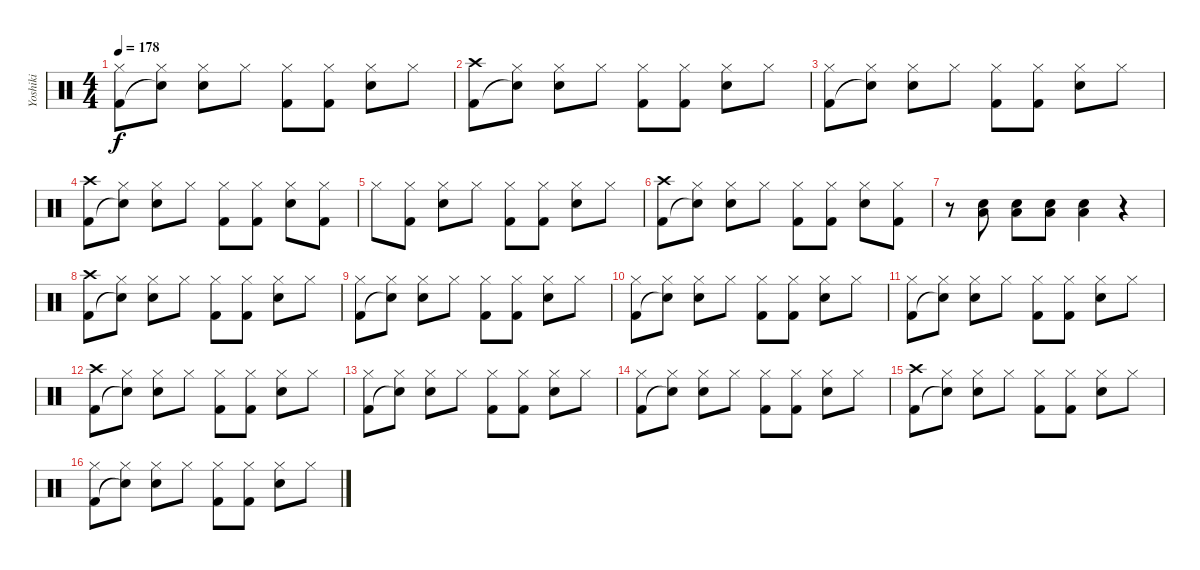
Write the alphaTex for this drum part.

\track ("Yoshiki" "Yoshiki") {instrument percussion}
\staff {score}
\articulation defaults
\ts (4 4)
\tempo 178
\clef neutral
\ks c
("Hi-Hat (closed)" "Kick (hit) 2").8{dy f} ("Hi-Hat (closed)" "Snare (hit)"{t}).8 ("Hi-Hat (closed)" "Snare (hit) 2").8 "Hi-Hat (closed)".8 ("Hi-Hat (closed)" "Kick (hit) 2").8 ("Hi-Hat (closed)" "Kick (hit) 2").8 ("Hi-Hat (closed)" "Snare (hit) 2").8 "Hi-Hat (closed)".8 |
("Crash high (hit)" "Kick (hit) 2").8 ("Hi-Hat (closed)" "Snare (hit)"{t}).8 ("Hi-Hat (closed)" "Snare (hit) 2").8 "Hi-Hat (closed)".8 ("Hi-Hat (closed)" "Kick (hit) 2").8 ("Hi-Hat (closed)" "Kick (hit) 2").8 ("Hi-Hat (closed)" "Snare (hit) 2").8 "Hi-Hat (closed)".8 |
("Hi-Hat (closed)" "Kick (hit) 2").8 ("Hi-Hat (closed)" "Snare (hit)"{t}).8 ("Hi-Hat (closed)" "Snare (hit) 2").8 "Hi-Hat (closed)".8 ("Hi-Hat (closed)" "Kick (hit) 2").8 ("Hi-Hat (closed)" "Kick (hit) 2").8 ("Hi-Hat (closed)" "Snare (hit) 2").8 "Hi-Hat (closed)".8 |
("Crash high (hit)" "Kick (hit) 2").8 ("Hi-Hat (closed)" "Snare (hit)"{t}).8 ("Hi-Hat (closed)" "Snare (hit) 2").8 "Hi-Hat (closed)".8 ("Hi-Hat (closed)" "Kick (hit) 2").8 ("Hi-Hat (closed)" "Kick (hit) 2").8 ("Hi-Hat (closed)" "Snare (hit) 2").8 ("Hi-Hat (closed)" "Kick (hit) 2").8 |
"Hi-Hat (closed)".8 ("Hi-Hat (closed)" "Kick (hit) 2").8 ("Hi-Hat (closed)" "Snare (hit) 2").8 "Hi-Hat (closed)".8 ("Hi-Hat (closed)" "Kick (hit) 2").8 ("Hi-Hat (closed)" "Kick (hit) 2").8 ("Hi-Hat (closed)" "Snare (hit) 2").8 "Hi-Hat (closed)".8 |
("Crash high (hit)" "Kick (hit) 2").8 ("Hi-Hat (closed)" "Snare (hit)"{t}).8 ("Hi-Hat (closed)" "Snare (hit) 2").8 "Hi-Hat (closed)".8 ("Hi-Hat (closed)" "Kick (hit) 2").8 ("Hi-Hat (closed)" "Kick (hit) 2").8 ("Hi-Hat (closed)" "Snare (hit) 2").8 ("Hi-Hat (closed)" "Kick (hit) 2").8 |
r.8 ("Snare (hit) 2" "Low Floor Tom (hit)").8 ("Snare (hit) 2" "Low Floor Tom (hit)").8 ("Snare (hit) 2" "Low Floor Tom (hit)").8 ("Snare (hit) 2" "Low Floor Tom (hit)").4 r.4 |
("Crash high (hit)" "Kick (hit) 2").8 ("Hi-Hat (closed)" "Snare (hit)"{t}).8 ("Hi-Hat (closed)" "Snare (hit) 2").8 "Hi-Hat (closed)".8 ("Hi-Hat (closed)" "Kick (hit) 2").8 ("Hi-Hat (closed)" "Kick (hit) 2").8 ("Hi-Hat (closed)" "Snare (hit) 2").8 "Hi-Hat (closed)".8 |
("Hi-Hat (closed)" "Kick (hit) 2").8 ("Hi-Hat (closed)" "Snare (hit)"{t}).8 ("Hi-Hat (closed)" "Snare (hit) 2").8 "Hi-Hat (closed)".8 ("Hi-Hat (closed)" "Kick (hit) 2").8 ("Hi-Hat (closed)" "Kick (hit) 2").8 ("Hi-Hat (closed)" "Snare (hit) 2").8 "Hi-Hat (closed)".8 |
("Hi-Hat (closed)" "Kick (hit) 2").8 ("Hi-Hat (closed)" "Snare (hit)"{t}).8 ("Hi-Hat (closed)" "Snare (hit) 2").8 "Hi-Hat (closed)".8 ("Hi-Hat (closed)" "Kick (hit) 2").8 ("Hi-Hat (closed)" "Kick (hit) 2").8 ("Hi-Hat (closed)" "Snare (hit) 2").8 "Hi-Hat (closed)".8 |
("Hi-Hat (closed)" "Kick (hit) 2").8 ("Hi-Hat (closed)" "Snare (hit)"{t}).8 ("Hi-Hat (closed)" "Snare (hit) 2").8 "Hi-Hat (closed)".8 ("Hi-Hat (closed)" "Kick (hit) 2").8 ("Hi-Hat (closed)" "Kick (hit) 2").8 ("Hi-Hat (closed)" "Snare (hit) 2").8 "Hi-Hat (closed)".8 |
("Crash high (hit)" "Kick (hit) 2").8 ("Hi-Hat (closed)" "Snare (hit)"{t}).8 ("Hi-Hat (closed)" "Snare (hit) 2").8 "Hi-Hat (closed)".8 ("Hi-Hat (closed)" "Kick (hit) 2").8 ("Hi-Hat (closed)" "Kick (hit) 2").8 ("Hi-Hat (closed)" "Snare (hit) 2").8 "Hi-Hat (closed)".8 |
("Hi-Hat (closed)" "Kick (hit) 2").8 ("Hi-Hat (closed)" "Snare (hit)"{t}).8 ("Hi-Hat (closed)" "Snare (hit) 2").8 "Hi-Hat (closed)".8 ("Hi-Hat (closed)" "Kick (hit) 2").8 ("Hi-Hat (closed)" "Kick (hit) 2").8 ("Hi-Hat (closed)" "Snare (hit) 2").8 "Hi-Hat (closed)".8 |
("Hi-Hat (closed)" "Kick (hit) 2").8 ("Hi-Hat (closed)" "Snare (hit)"{t}).8 ("Hi-Hat (closed)" "Snare (hit) 2").8 "Hi-Hat (closed)".8 ("Hi-Hat (closed)" "Kick (hit) 2").8 ("Hi-Hat (closed)" "Kick (hit) 2").8 ("Hi-Hat (closed)" "Snare (hit) 2").8 "Hi-Hat (closed)".8 |
("Crash high (hit)" "Kick (hit) 2").8 ("Hi-Hat (closed)" "Snare (hit)"{t}).8 ("Hi-Hat (closed)" "Snare (hit) 2").8 "Hi-Hat (closed)".8 ("Hi-Hat (closed)" "Kick (hit) 2").8 ("Hi-Hat (closed)" "Kick (hit) 2").8 ("Hi-Hat (closed)" "Snare (hit) 2").8 "Hi-Hat (closed)".8 |
("Hi-Hat (closed)" "Kick (hit) 2").8 ("Hi-Hat (closed)" "Snare (hit)"{t}).8 ("Hi-Hat (closed)" "Snare (hit) 2").8 "Hi-Hat (closed)".8 ("Hi-Hat (closed)" "Kick (hit) 2").8 ("Hi-Hat (closed)" "Kick (hit) 2").8 ("Hi-Hat (closed)" "Snare (hit) 2").8 "Hi-Hat (closed)".8
